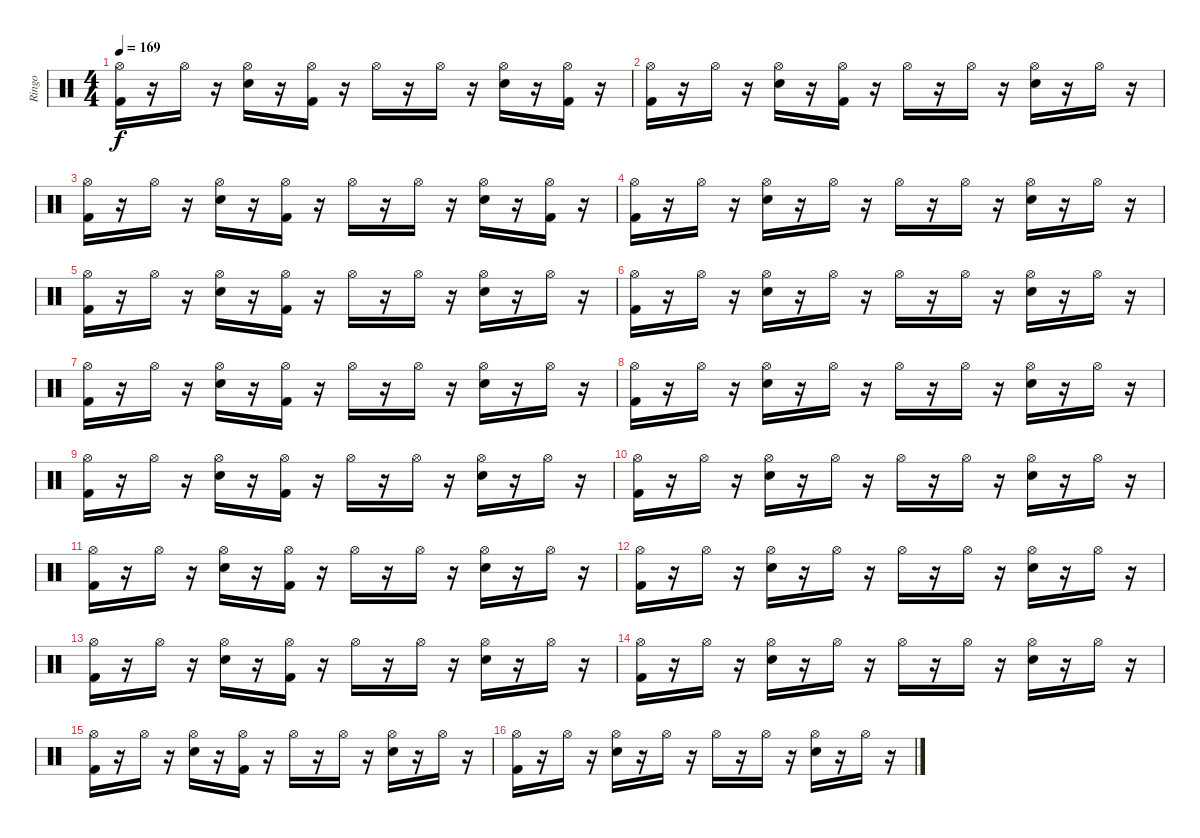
\track ("Ringo" "Ringo") {instrument percussion}
\staff {score}
\articulation defaults
\ts (4 4)
\tempo 169
\clef neutral
\ks c
("Kick (hit) 2" "Hi-Hat (open)").16{dy f} r.16 "Hi-Hat (open)".16 r.16 ("Snare (hit) 2" "Hi-Hat (open)").16 r.16 ("Kick (hit) 2" "Hi-Hat (open)").16 r.16 "Hi-Hat (open)".16 r.16 "Hi-Hat (open)".16 r.16 ("Snare (hit) 2" "Hi-Hat (open)").16 r.16 ("Kick (hit) 2" "Hi-Hat (open)").16 r.16 |
("Kick (hit) 2" "Hi-Hat (open)").16 r.16 "Hi-Hat (open)".16 r.16 ("Snare (hit) 2" "Hi-Hat (open)").16 r.16 ("Kick (hit) 2" "Hi-Hat (open)").16 r.16 "Hi-Hat (open)".16 r.16 "Hi-Hat (open)".16 r.16 ("Snare (hit) 2" "Hi-Hat (open)").16 r.16 "Hi-Hat (open)".16 r.16 |
("Kick (hit) 2" "Hi-Hat (open)").16 r.16 "Hi-Hat (open)".16 r.16 ("Snare (hit) 2" "Hi-Hat (open)").16 r.16 ("Kick (hit) 2" "Hi-Hat (open)").16 r.16 "Hi-Hat (open)".16 r.16 "Hi-Hat (open)".16 r.16 ("Snare (hit) 2" "Hi-Hat (open)").16 r.16 ("Kick (hit) 2" "Hi-Hat (open)").16 r.16 |
("Kick (hit) 2" "Hi-Hat (open)").16 r.16 "Hi-Hat (open)".16 r.16 ("Snare (hit) 2" "Hi-Hat (open)").16 r.16 "Hi-Hat (open)".16 r.16 "Hi-Hat (open)".16 r.16 "Hi-Hat (open)".16 r.16 ("Snare (hit) 2" "Hi-Hat (open)").16 r.16 "Hi-Hat (open)".16 r.16 |
("Kick (hit) 2" "Hi-Hat (open)").16 r.16 "Hi-Hat (open)".16 r.16 ("Snare (hit) 2" "Hi-Hat (open)").16 r.16 ("Kick (hit) 2" "Hi-Hat (open)").16 r.16 "Hi-Hat (open)".16 r.16 "Hi-Hat (open)".16 r.16 ("Snare (hit) 2" "Hi-Hat (open)").16 r.16 "Hi-Hat (open)".16 r.16 |
("Hi-Hat (open)" "Kick (hit) 2").16 r.16 "Hi-Hat (open)".16 r.16 ("Hi-Hat (open)" "Snare (hit) 2").16 r.16 "Hi-Hat (open)".16 r.16 "Hi-Hat (open)".16 r.16 "Hi-Hat (open)".16 r.16 ("Hi-Hat (open)" "Snare (hit) 2").16 r.16 "Hi-Hat (open)".16 r.16 |
("Hi-Hat (open)" "Kick (hit) 2").16 r.16 "Hi-Hat (open)".16 r.16 ("Hi-Hat (open)" "Snare (hit) 2").16 r.16 ("Hi-Hat (open)" "Kick (hit) 2").16 r.16 "Hi-Hat (open)".16 r.16 "Hi-Hat (open)".16 r.16 ("Hi-Hat (open)" "Snare (hit) 2").16 r.16 "Hi-Hat (open)".16 r.16 |
("Hi-Hat (open)" "Kick (hit) 2").16 r.16 "Hi-Hat (open)".16 r.16 ("Hi-Hat (open)" "Snare (hit) 2").16 r.16 "Hi-Hat (open)".16 r.16 "Hi-Hat (open)".16 r.16 "Hi-Hat (open)".16 r.16 ("Hi-Hat (open)" "Snare (hit) 2").16 r.16 "Hi-Hat (open)".16 r.16 |
("Hi-Hat (open)" "Kick (hit) 2").16 r.16 "Hi-Hat (open)".16 r.16 ("Hi-Hat (open)" "Snare (hit) 2").16 r.16 ("Hi-Hat (open)" "Kick (hit) 2").16 r.16 "Hi-Hat (open)".16 r.16 "Hi-Hat (open)".16 r.16 ("Hi-Hat (open)" "Snare (hit) 2").16 r.16 "Hi-Hat (open)".16 r.16 |
("Hi-Hat (open)" "Kick (hit) 2").16 r.16 "Hi-Hat (open)".16 r.16 ("Hi-Hat (open)" "Snare (hit) 2").16 r.16 "Hi-Hat (open)".16 r.16 "Hi-Hat (open)".16 r.16 "Hi-Hat (open)".16 r.16 ("Hi-Hat (open)" "Snare (hit) 2").16 r.16 "Hi-Hat (open)".16 r.16 |
("Hi-Hat (open)" "Kick (hit) 2").16 r.16 "Hi-Hat (open)".16 r.16 ("Hi-Hat (open)" "Snare (hit) 2").16 r.16 ("Hi-Hat (open)" "Kick (hit) 2").16 r.16 "Hi-Hat (open)".16 r.16 "Hi-Hat (open)".16 r.16 ("Hi-Hat (open)" "Snare (hit) 2").16 r.16 "Hi-Hat (open)".16 r.16 |
("Hi-Hat (open)" "Kick (hit) 2").16 r.16 "Hi-Hat (open)".16 r.16 ("Hi-Hat (open)" "Snare (hit) 2").16 r.16 "Hi-Hat (open)".16 r.16 "Hi-Hat (open)".16 r.16 "Hi-Hat (open)".16 r.16 ("Hi-Hat (open)" "Snare (hit) 2").16 r.16 "Hi-Hat (open)".16 r.16 |
("Hi-Hat (open)" "Kick (hit) 2").16 r.16 "Hi-Hat (open)".16 r.16 ("Hi-Hat (open)" "Snare (hit) 2").16 r.16 ("Hi-Hat (open)" "Kick (hit) 2").16 r.16 "Hi-Hat (open)".16 r.16 "Hi-Hat (open)".16 r.16 ("Hi-Hat (open)" "Snare (hit) 2").16 r.16 "Hi-Hat (open)".16 r.16 |
("Hi-Hat (open)" "Kick (hit) 2").16 r.16 "Hi-Hat (open)".16 r.16 ("Hi-Hat (open)" "Snare (hit) 2").16 r.16 "Hi-Hat (open)".16 r.16 "Hi-Hat (open)".16 r.16 "Hi-Hat (open)".16 r.16 ("Hi-Hat (open)" "Snare (hit) 2").16 r.16 "Hi-Hat (open)".16 r.16 |
("Hi-Hat (open)" "Kick (hit) 2").16 r.16 "Hi-Hat (open)".16 r.16 ("Hi-Hat (open)" "Snare (hit) 2").16 r.16 ("Hi-Hat (open)" "Kick (hit) 2").16 r.16 "Hi-Hat (open)".16 r.16 "Hi-Hat (open)".16 r.16 ("Hi-Hat (open)" "Snare (hit) 2").16 r.16 "Hi-Hat (open)".16 r.16 |
("Hi-Hat (open)" "Kick (hit) 2").16 r.16 "Hi-Hat (open)".16 r.16 ("Hi-Hat (open)" "Snare (hit) 2").16 r.16 "Hi-Hat (open)".16 r.16 "Hi-Hat (open)".16 r.16 "Hi-Hat (open)".16 r.16 ("Hi-Hat (open)" "Snare (hit) 2").16 r.16 "Hi-Hat (open)".16 r.16
